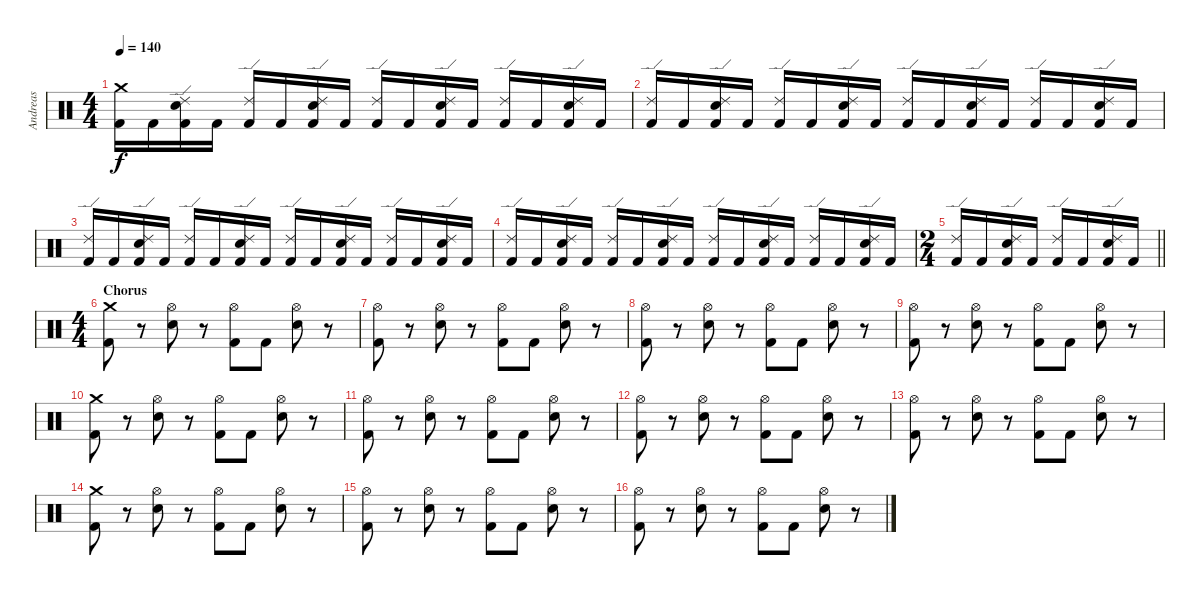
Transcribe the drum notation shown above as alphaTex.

\track ("Andreas" "Andreas") {instrument percussion}
\staff {score}
\articulation defaults
\ts (4 4)
\tempo 140
\clef neutral
\ks c
("Crash medium (hit)" "Kick (hit) 2").16{dy f} "Kick (hit) 2".16 ("Ride (edge) 2" "Electric Snare (hit)" "Kick (hit) 2").16 "Kick (hit) 2".16 ("Ride (edge) 2" "Kick (hit) 2").16 "Kick (hit) 2".16 ("Ride (edge) 2" "Electric Snare (hit)" "Kick (hit) 2").16 "Kick (hit) 2".16 ("Ride (edge) 2" "Kick (hit) 2").16 "Kick (hit) 2".16 ("Ride (edge) 2" "Electric Snare (hit)" "Kick (hit) 2").16 "Kick (hit) 2".16 ("Ride (edge) 2" "Kick (hit) 2").16 "Kick (hit) 2".16 ("Ride (edge) 2" "Electric Snare (hit)" "Kick (hit) 2").16 "Kick (hit) 2".16 |
("Ride (edge) 2" "Kick (hit) 2").16 "Kick (hit) 2".16 ("Ride (edge) 2" "Electric Snare (hit)" "Kick (hit) 2").16 "Kick (hit) 2".16 ("Ride (edge) 2" "Kick (hit) 2").16 "Kick (hit) 2".16 ("Ride (edge) 2" "Electric Snare (hit)" "Kick (hit) 2").16 "Kick (hit) 2".16 ("Ride (edge) 2" "Kick (hit) 2").16 "Kick (hit) 2".16 ("Ride (edge) 2" "Electric Snare (hit)" "Kick (hit) 2").16 "Kick (hit) 2".16 ("Ride (edge) 2" "Kick (hit) 2").16 "Kick (hit) 2".16 ("Ride (edge) 2" "Electric Snare (hit)" "Kick (hit) 2").16 "Kick (hit) 2".16 |
("Ride (edge) 2" "Kick (hit) 2").16 "Kick (hit) 2".16 ("Ride (edge) 2" "Electric Snare (hit)" "Kick (hit) 2").16 "Kick (hit) 2".16 ("Ride (edge) 2" "Kick (hit) 2").16 "Kick (hit) 2".16 ("Ride (edge) 2" "Electric Snare (hit)" "Kick (hit) 2").16 "Kick (hit) 2".16 ("Ride (edge) 2" "Kick (hit) 2").16 "Kick (hit) 2".16 ("Ride (edge) 2" "Electric Snare (hit)" "Kick (hit) 2").16 "Kick (hit) 2".16 ("Ride (edge) 2" "Kick (hit) 2").16 "Kick (hit) 2".16 ("Ride (edge) 2" "Electric Snare (hit)" "Kick (hit) 2").16 "Kick (hit) 2".16 |
("Ride (edge) 2" "Kick (hit) 2").16 "Kick (hit) 2".16 ("Ride (edge) 2" "Electric Snare (hit)" "Kick (hit) 2").16 "Kick (hit) 2".16 ("Ride (edge) 2" "Kick (hit) 2").16 "Kick (hit) 2".16 ("Ride (edge) 2" "Electric Snare (hit)" "Kick (hit) 2").16 "Kick (hit) 2".16 ("Ride (edge) 2" "Kick (hit) 2").16 "Kick (hit) 2".16 ("Ride (edge) 2" "Electric Snare (hit)" "Kick (hit) 2").16 "Kick (hit) 2".16 ("Ride (edge) 2" "Kick (hit) 2").16 "Kick (hit) 2".16 ("Ride (edge) 2" "Electric Snare (hit)" "Kick (hit) 2").16 "Kick (hit) 2".16 |
\ts (2 4)
\barLineRight lightlight
("Ride (edge) 2" "Kick (hit) 2").16 "Kick (hit) 2".16 ("Ride (edge) 2" "Electric Snare (hit)" "Kick (hit) 2").16 "Kick (hit) 2".16 ("Ride (edge) 2" "Kick (hit) 2").16 "Kick (hit) 2".16 ("Ride (edge) 2" "Electric Snare (hit)" "Kick (hit) 2").16 "Kick (hit) 2".16 |
\ts (4 4)
\section ("" "Chorus")
("Crash medium (hit)" "Kick (hit) 2").8 r.8 ("Hi-Hat (open)" "Electric Snare (hit)").8 r.8 ("Hi-Hat (open)" "Kick (hit) 2").8 "Kick (hit) 2".8 ("Hi-Hat (open)" "Electric Snare (hit)").8 r.8 |
("Hi-Hat (open)" "Kick (hit) 2").8 r.8 ("Hi-Hat (open)" "Electric Snare (hit)").8 r.8 ("Hi-Hat (open)" "Kick (hit) 2").8 "Kick (hit) 2".8 ("Hi-Hat (open)" "Electric Snare (hit)").8 r.8 |
("Hi-Hat (open)" "Kick (hit) 2").8 r.8 ("Hi-Hat (open)" "Electric Snare (hit)").8 r.8 ("Hi-Hat (open)" "Kick (hit) 2").8 "Kick (hit) 2".8 ("Hi-Hat (open)" "Electric Snare (hit)").8 r.8 |
("Hi-Hat (open)" "Kick (hit) 2").8 r.8 ("Hi-Hat (open)" "Electric Snare (hit)").8 r.8 ("Hi-Hat (open)" "Kick (hit) 2").8 "Kick (hit) 2".8 ("Hi-Hat (open)" "Electric Snare (hit)").8 r.8 |
("Crash medium (hit)" "Kick (hit) 2").8 r.8 ("Hi-Hat (open)" "Electric Snare (hit)").8 r.8 ("Hi-Hat (open)" "Kick (hit) 2").8 "Kick (hit) 2".8 ("Hi-Hat (open)" "Electric Snare (hit)").8 r.8 |
("Hi-Hat (open)" "Kick (hit) 2").8 r.8 ("Hi-Hat (open)" "Electric Snare (hit)").8 r.8 ("Hi-Hat (open)" "Kick (hit) 2").8 "Kick (hit) 2".8 ("Hi-Hat (open)" "Electric Snare (hit)").8 r.8 |
("Hi-Hat (open)" "Kick (hit) 2").8 r.8 ("Hi-Hat (open)" "Electric Snare (hit)").8 r.8 ("Hi-Hat (open)" "Kick (hit) 2").8 "Kick (hit) 2".8 ("Hi-Hat (open)" "Electric Snare (hit)").8 r.8 |
("Hi-Hat (open)" "Kick (hit) 2").8 r.8 ("Hi-Hat (open)" "Electric Snare (hit)").8 r.8 ("Hi-Hat (open)" "Kick (hit) 2").8 "Kick (hit) 2".8 ("Hi-Hat (open)" "Electric Snare (hit)").8 r.8 |
("Crash medium (hit)" "Kick (hit) 2").8 r.8 ("Hi-Hat (open)" "Electric Snare (hit)").8 r.8 ("Hi-Hat (open)" "Kick (hit) 2").8 "Kick (hit) 2".8 ("Hi-Hat (open)" "Electric Snare (hit)").8 r.8 |
("Hi-Hat (open)" "Kick (hit) 2").8 r.8 ("Hi-Hat (open)" "Electric Snare (hit)").8 r.8 ("Hi-Hat (open)" "Kick (hit) 2").8 "Kick (hit) 2".8 ("Hi-Hat (open)" "Electric Snare (hit)").8 r.8 |
("Hi-Hat (open)" "Kick (hit) 2").8 r.8 ("Hi-Hat (open)" "Electric Snare (hit)").8 r.8 ("Hi-Hat (open)" "Kick (hit) 2").8 "Kick (hit) 2".8 ("Hi-Hat (open)" "Electric Snare (hit)").8 r.8
